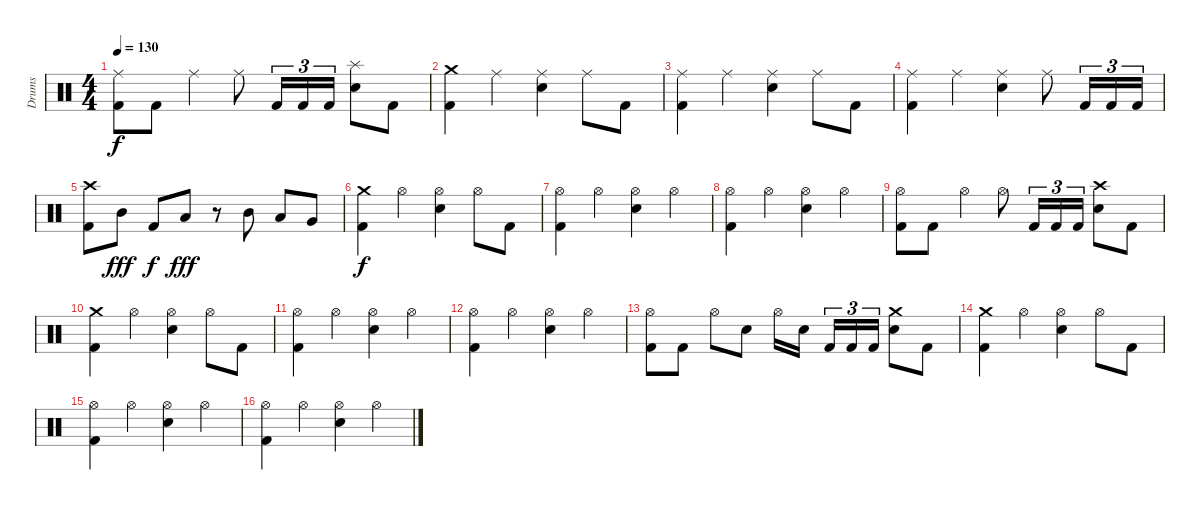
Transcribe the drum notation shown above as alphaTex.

\track ("Drums" "Drums") {instrument percussion}
\staff {score}
\articulation defaults
\ts (4 4)
\tempo 130
\clef neutral
\ks c
("Kick (hit) 2" "Ride (middle)").8{dy f} "Kick (hit) 2".8 "Ride (middle)".4 "Ride (middle)".8 "Kick (hit) 2".16{tu (3 2)} "Kick (hit) 2".16{tu (3 2)} "Kick (hit) 2".16{tu (3 2)} ("Snare (hit) 2" "Splash (hit)").8 "Kick (hit) 2".8 |
("Kick (hit) 2" "Crash medium (hit)").4 "Ride (middle)".4 ("Snare (hit) 2" "Ride (middle)").4 "Ride (middle)".8 "Kick (hit) 2".8 |
("Kick (hit) 2" "Ride (middle)").4 "Ride (middle)".4 ("Snare (hit) 2" "Ride (middle)").4 "Ride (middle)".8 "Kick (hit) 2".8 |
("Kick (hit) 2" "Ride (middle)").4 "Ride (middle)".4 ("Snare (hit) 2" "Ride (middle)").4 "Ride (middle)".8 "Kick (hit) 2".16{tu (3 2)} "Kick (hit) 2".16{tu (3 2)} "Kick (hit) 2".16{tu (3 2)} |
("Kick (hit) 2" "Crash high (hit)").8 "Mid Tom (hit)".8{dy fff} "Kick (hit) 2".8{dy f} "Low Tom (hit)".8{dy fff} r.8 "Mid Tom (hit)".8 "Low Tom (hit)".8 "Very Low Tom (hit)".8 |
("Kick (hit) 2" "Crash medium (hit)").4{dy f} "Hi-Hat (open)".4 ("Snare (hit) 2" "Hi-Hat (open)").4 "Hi-Hat (open)".8 "Kick (hit) 2".8 |
("Kick (hit) 2" "Hi-Hat (open)").4 "Hi-Hat (open)".4 ("Snare (hit) 2" "Hi-Hat (open)").4 "Hi-Hat (open)".4 |
("Kick (hit) 2" "Hi-Hat (open)").4 "Hi-Hat (open)".4 ("Snare (hit) 2" "Hi-Hat (open)").4 "Hi-Hat (open)".4 |
("Kick (hit) 2" "Hi-Hat (open)").8 "Kick (hit) 2".8 "Hi-Hat (open)".4 "Hi-Hat (open)".8 "Kick (hit) 2".16{tu (3 2)} "Kick (hit) 2".16{tu (3 2)} "Kick (hit) 2".16{tu (3 2)} ("Snare (hit) 2" "Crash high (hit)").8 "Kick (hit) 2".8 |
("Kick (hit) 2" "Crash medium (hit)").4 "Hi-Hat (open)".4 ("Snare (hit) 2" "Hi-Hat (open)").4 "Hi-Hat (open)".8 "Kick (hit) 2".8 |
("Kick (hit) 2" "Hi-Hat (open)").4 "Hi-Hat (open)".4 ("Snare (hit) 2" "Hi-Hat (open)").4 "Hi-Hat (open)".4 |
("Kick (hit) 2" "Hi-Hat (open)").4 "Hi-Hat (open)".4 ("Snare (hit) 2" "Hi-Hat (open)").4 "Hi-Hat (open)".4 |
("Kick (hit) 2" "Hi-Hat (open)").8 "Kick (hit) 2".8 "Hi-Hat (open)".8 "Snare (hit) 2".8 "Hi-Hat (open)".16 "Snare (hit) 2".16 "Kick (hit) 2".16{tu (3 2)} "Kick (hit) 2".16{tu (3 2)} "Kick (hit) 2".16{tu (3 2)} ("Snare (hit) 2" "Crash medium (hit)").8 "Kick (hit) 2".8 |
("Kick (hit) 2" "Crash medium (hit)").4 "Hi-Hat (open)".4 ("Snare (hit) 2" "Hi-Hat (open)").4 "Hi-Hat (open)".8 "Kick (hit) 2".8 |
("Kick (hit) 2" "Hi-Hat (open)").4 "Hi-Hat (open)".4 ("Snare (hit) 2" "Hi-Hat (open)").4 "Hi-Hat (open)".4 |
("Kick (hit) 2" "Hi-Hat (open)").4 "Hi-Hat (open)".4 ("Snare (hit) 2" "Hi-Hat (open)").4 "Hi-Hat (open)".4
